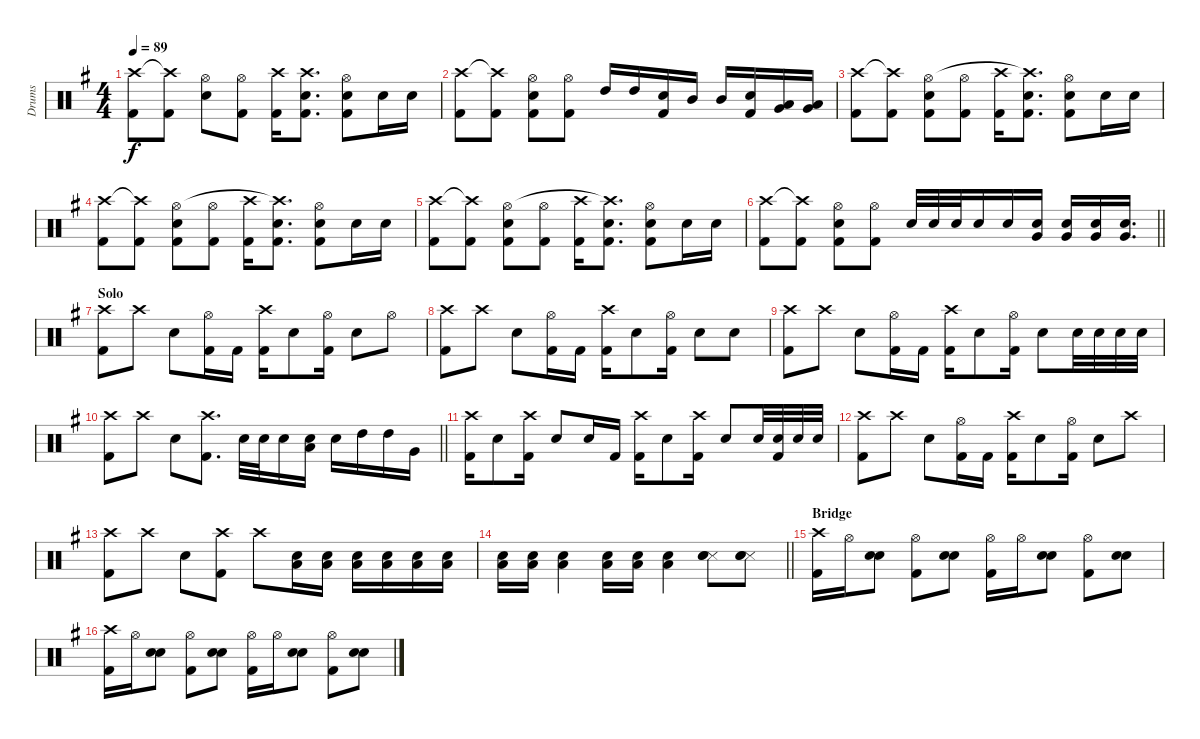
\track ("Drums" "Drums") {instrument percussion}
\staff {score}
\articulation defaults
\ts (4 4)
\tempo 89
\clef neutral
\ks g
("Kick (hit) 2" "Crash high (hit)").8{dy f} ("Kick (hit) 2" "Crash high (hit)"{t}).8 ("Electric Snare (hit)" "Hi-Hat (open)").8 ("Kick (hit) 2" "Hi-Hat (open)").8 ("Kick (hit) 2" "Crash high (hit)").16 ("Kick (hit) 2" "Electric Snare (hit)" "Crash high (hit)"{t}).8{d} ("Kick (hit) 2" "Electric Snare (hit)" "Hi-Hat (open)").8 "Electric Snare (hit)".16 "Electric Snare (hit)".16 |
("Kick (hit) 2" "Crash high (hit)").8 ("Kick (hit) 2" "Crash high (hit)"{t}).8 ("Kick (hit) 2" "Electric Snare (hit)" "Hi-Hat (open)").8 ("Kick (hit) 2" "Hi-Hat (open)").8 "High Tom (hit)".16 "High Tom (hit)".16 ("Kick (hit) 2" "Electric Snare (hit)").16 "Mid Tom (hit)".16 "Mid Tom (hit)".16 ("Kick (hit) 2" "Electric Snare (hit)").16 ("Low Tom (hit)" "Very Low Tom (hit)").16 ("Low Tom (hit)" "Very Low Tom (hit)").16 |
("Kick (hit) 2" "Crash high (hit)").8 ("Kick (hit) 2" "Crash high (hit)"{t}).8 ("Kick (hit) 2" "Electric Snare (hit)" "Hi-Hat (open)").8 ("Kick (hit) 2" "Hi-Hat (open)").8 ("Kick (hit) 2" "Crash high (hit)").16 ("Kick (hit) 2" "Electric Snare (hit)" "Crash high (hit)"{t}).8{d} ("Kick (hit) 2" "Electric Snare (hit)" "Hi-Hat (open)").8 "Electric Snare (hit)".16 "Electric Snare (hit)".16 |
("Kick (hit) 2" "Crash high (hit)").8 ("Kick (hit) 2" "Crash high (hit)"{t}).8 ("Kick (hit) 2" "Electric Snare (hit)" "Hi-Hat (open)").8 ("Kick (hit) 2" "Hi-Hat (open)").8 ("Kick (hit) 2" "Crash high (hit)").16 ("Kick (hit) 2" "Electric Snare (hit)" "Crash high (hit)"{t}).8{d} ("Kick (hit) 2" "Electric Snare (hit)" "Hi-Hat (open)").8 "Electric Snare (hit)".16 "Electric Snare (hit)".16 |
("Kick (hit) 2" "Crash high (hit)").8 ("Kick (hit) 2" "Crash high (hit)"{t}).8 ("Kick (hit) 2" "Electric Snare (hit)" "Hi-Hat (open)").8 ("Kick (hit) 2" "Hi-Hat (open)").8 ("Kick (hit) 2" "Crash high (hit)").16 ("Kick (hit) 2" "Electric Snare (hit)" "Crash high (hit)"{t}).8{d} ("Kick (hit) 2" "Electric Snare (hit)" "Hi-Hat (open)").8 "Electric Snare (hit)".16 "Electric Snare (hit)".16 |
\barLineRight lightlight
("Kick (hit) 2" "Crash high (hit)").8 ("Kick (hit) 2" "Crash high (hit)"{t}).8 ("Kick (hit) 2" "Electric Snare (hit)" "Hi-Hat (open)").8 ("Kick (hit) 2" "Hi-Hat (open)").8 "Electric Snare (hit)".32 "Electric Snare (hit)".32 "Electric Snare (hit)".32 "Electric Snare (hit)".16 "Electric Snare (hit)".16 ("Very Low Tom (hit)" "Electric Snare (hit)").16 ("Very Low Tom (hit)" "Electric Snare (hit)").16 ("Very Low Tom (hit)" "Electric Snare (hit)").16 ("Very Low Tom (hit)" "Electric Snare (hit)").16{d} |
\section ("" "Solo")
("Kick (hit) 2" "Crash high (hit)").8 "Crash high (hit)".8 "Electric Snare (hit)".8 ("Kick (hit) 2" "Hi-Hat (open)").16 "Kick (hit) 2".16 ("Kick (hit) 2" "Crash high (hit)").16 "Electric Snare (hit)".8 ("Kick (hit) 2" "Hi-Hat (open)").16 "Electric Snare (hit)".8 "Hi-Hat (open)".8 |
("Kick (hit) 2" "Crash high (hit)").8 "Crash high (hit)".8 "Electric Snare (hit)".8 ("Kick (hit) 2" "Hi-Hat (open)").16 "Kick (hit) 2".16 ("Kick (hit) 2" "Crash high (hit)").16 "Electric Snare (hit)".8 ("Kick (hit) 2" "Hi-Hat (open)").16 "Electric Snare (hit)".8 "Electric Snare (hit)".8 |
("Kick (hit) 2" "Crash high (hit)").8 "Crash high (hit)".8 "Electric Snare (hit)".8 ("Kick (hit) 2" "Hi-Hat (open)").16 "Kick (hit) 2".16 ("Kick (hit) 2" "Crash high (hit)").16 "Electric Snare (hit)".8 ("Kick (hit) 2" "Hi-Hat (open)").16 "Electric Snare (hit)".8 "Electric Snare (hit)".32 "Electric Snare (hit)".32 "Electric Snare (hit)".32 "Electric Snare (hit)".32 |
\barLineRight lightlight
("Kick (hit) 2" "Crash high (hit)").8 "Crash high (hit)".8 "Electric Snare (hit)".8 ("Kick (hit) 2" "Crash high (hit)").8{d} "Electric Snare (hit)".32 "Electric Snare (hit)".32 "Electric Snare (hit)".16 ("Electric Snare (hit)" "Low Tom (hit)").16 "Electric Snare (hit)".16 "High Tom (hit)".16 "High Tom (hit)".16 "Very Low Tom (hit)".16 |
("Kick (hit) 2" "Crash high (hit)").16 "Electric Snare (hit)".8 ("Kick (hit) 2" "Crash high (hit)").16 "Electric Snare (hit)".8 "Electric Snare (hit)".16 "Kick (hit) 2".16 ("Kick (hit) 2" "Crash high (hit)").16 "Electric Snare (hit)".8 ("Kick (hit) 2" "Crash high (hit)").16 "Electric Snare (hit)".8 "Electric Snare (hit)".32 ("Kick (hit) 2" "Electric Snare (hit)").32 "Electric Snare (hit)".32 "Electric Snare (hit)".32 |
("Kick (hit) 2" "Crash high (hit)").8 "Crash high (hit)".8 "Electric Snare (hit)".8 ("Kick (hit) 2" "Hi-Hat (open)").16 "Kick (hit) 2".16 ("Kick (hit) 2" "Crash high (hit)").16 "Electric Snare (hit)".8 ("Kick (hit) 2" "Hi-Hat (open)").16 "Electric Snare (hit)".8 "Crash high (hit)".8 |
("Kick (hit) 2" "Crash high (hit)").8 "Crash high (hit)".8 "Electric Snare (hit)".8 ("Kick (hit) 2" "Crash high (hit)").8 "Crash high (hit)".8 ("Low Floor Tom (hit)" "Electric Snare (hit)").16 ("Low Floor Tom (hit)" "Electric Snare (hit)").16 ("Low Floor Tom (hit)" "Electric Snare (hit)").16 ("Low Floor Tom (hit)" "Electric Snare (hit)").16 ("Low Floor Tom (hit)" "Electric Snare (hit)").16 ("Low Floor Tom (hit)" "Electric Snare (hit)").16 |
\barLineRight lightlight
("Low Floor Tom (hit)" "Electric Snare (hit)").16 ("Low Floor Tom (hit)" "Electric Snare (hit)").16 ("Low Floor Tom (hit)" "Electric Snare (hit)").4 ("Low Floor Tom (hit)" "Electric Snare (hit)").16 ("Low Floor Tom (hit)" "Electric Snare (hit)").16 ("Low Floor Tom (hit)" "Electric Snare (hit)").4 ("Snare (side stick) 3" "Electric Snare (hit)" "Electric Snare (hit)").8 ("Snare (side stick) 3" "Electric Snare (hit)" "Electric Snare (hit)").8 |
\section ("" "Bridge")
("Kick (hit) 2" "Crash high (hit)").16 "Hi-Hat (open)".16 ("Electric Snare (hit)" "Electric Snare (hit)").8 ("Kick (hit) 2" "Hi-Hat (open)").8 ("Electric Snare (hit)" "Electric Snare (hit)").8 ("Kick (hit) 2" "Hi-Hat (open)").16 "Hi-Hat (open)".16 ("Electric Snare (hit)" "Electric Snare (hit)").8 ("Kick (hit) 2" "Hi-Hat (open)").8 ("Electric Snare (hit)" "Electric Snare (hit)").8 |
("Kick (hit) 2" "Crash high (hit)").16 "Hi-Hat (open)".16 ("Electric Snare (hit)" "Electric Snare (hit)").8 ("Kick (hit) 2" "Hi-Hat (open)").8 ("Electric Snare (hit)" "Electric Snare (hit)").8 ("Kick (hit) 2" "Hi-Hat (open)").16 "Hi-Hat (open)".16 ("Electric Snare (hit)" "Electric Snare (hit)").8 ("Kick (hit) 2" "Hi-Hat (open)").8 ("Electric Snare (hit)" "Electric Snare (hit)").8
